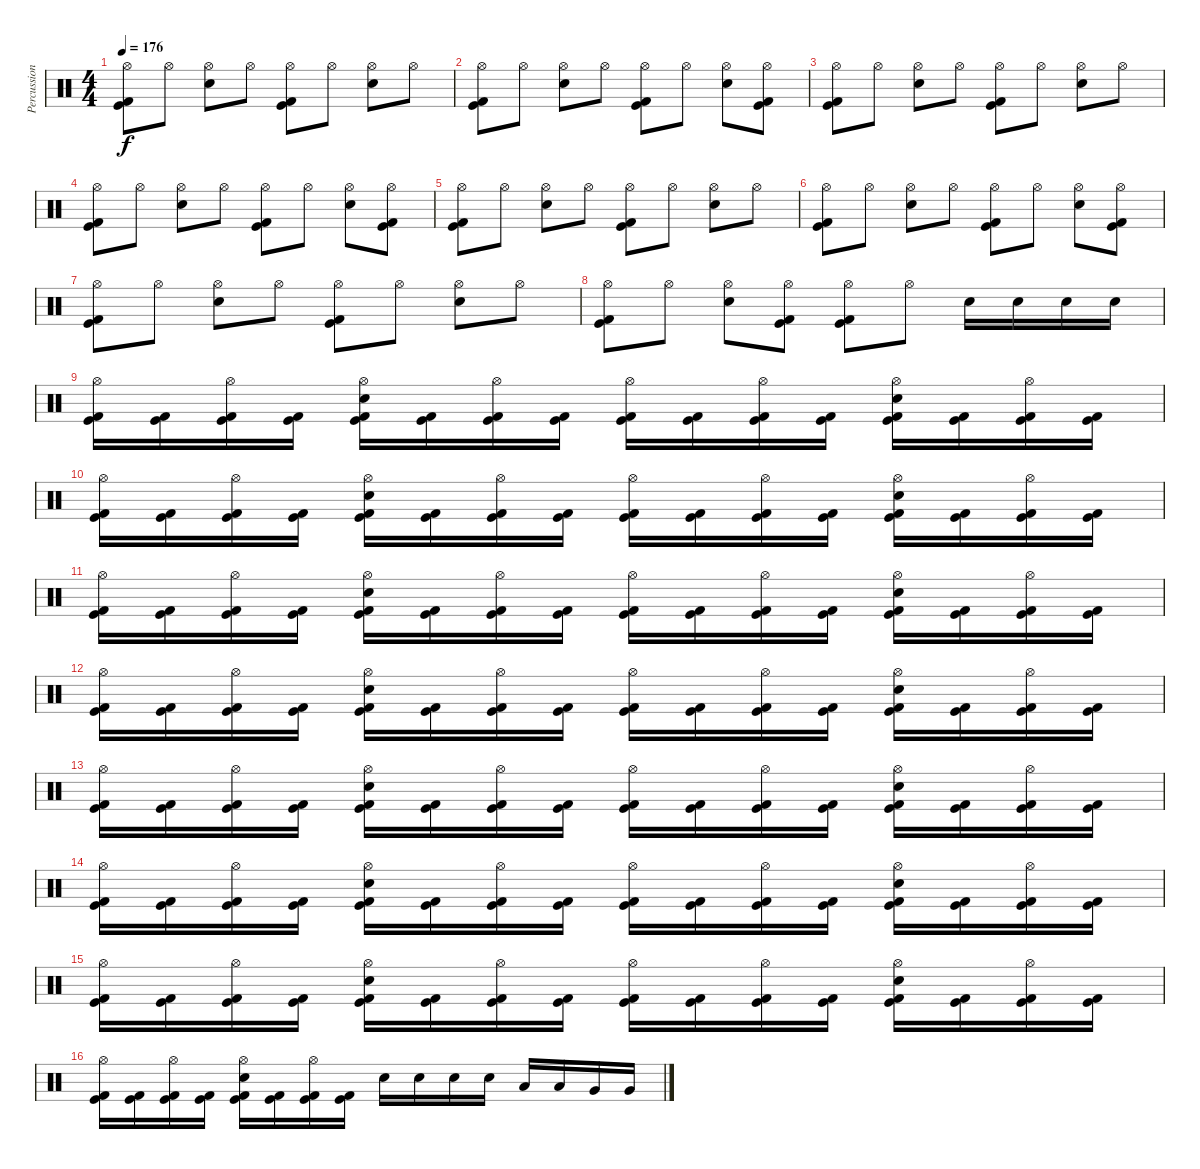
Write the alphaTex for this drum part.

\track ("Percussions" "Percussion") {instrument percussion}
\staff {score}
\articulation defaults
\ts (4 4)
\tempo 176
\clef neutral
\ks c
("Hi-Hat (open)" "Kick (hit)" "Kick (hit) 2").8{dy f} "Hi-Hat (open)".8 ("Hi-Hat (open)" "Electric Snare (hit)").8 "Hi-Hat (open)".8 ("Hi-Hat (open)" "Kick (hit)" "Kick (hit) 2").8 "Hi-Hat (open)".8 ("Hi-Hat (open)" "Electric Snare (hit)").8 "Hi-Hat (open)".8 |
("Hi-Hat (open)" "Kick (hit)" "Kick (hit) 2").8 "Hi-Hat (open)".8 ("Hi-Hat (open)" "Electric Snare (hit)").8 "Hi-Hat (open)".8 ("Hi-Hat (open)" "Kick (hit)" "Kick (hit) 2").8 "Hi-Hat (open)".8 ("Hi-Hat (open)" "Electric Snare (hit)").8 ("Hi-Hat (open)" "Kick (hit)" "Kick (hit) 2").8 |
("Hi-Hat (open)" "Kick (hit)" "Kick (hit) 2").8 "Hi-Hat (open)".8 ("Hi-Hat (open)" "Electric Snare (hit)").8 "Hi-Hat (open)".8 ("Hi-Hat (open)" "Kick (hit)" "Kick (hit) 2").8 "Hi-Hat (open)".8 ("Hi-Hat (open)" "Electric Snare (hit)").8 "Hi-Hat (open)".8 |
("Hi-Hat (open)" "Kick (hit)" "Kick (hit) 2").8 "Hi-Hat (open)".8 ("Hi-Hat (open)" "Electric Snare (hit)").8 "Hi-Hat (open)".8 ("Hi-Hat (open)" "Kick (hit)" "Kick (hit) 2").8 "Hi-Hat (open)".8 ("Hi-Hat (open)" "Electric Snare (hit)").8 ("Hi-Hat (open)" "Kick (hit)" "Kick (hit) 2").8 |
("Hi-Hat (open)" "Kick (hit)" "Kick (hit) 2").8 "Hi-Hat (open)".8 ("Hi-Hat (open)" "Electric Snare (hit)").8 "Hi-Hat (open)".8 ("Hi-Hat (open)" "Kick (hit)" "Kick (hit) 2").8 "Hi-Hat (open)".8 ("Hi-Hat (open)" "Electric Snare (hit)").8 "Hi-Hat (open)".8 |
("Hi-Hat (open)" "Kick (hit)" "Kick (hit) 2").8 "Hi-Hat (open)".8 ("Hi-Hat (open)" "Electric Snare (hit)").8 "Hi-Hat (open)".8 ("Hi-Hat (open)" "Kick (hit)" "Kick (hit) 2").8 "Hi-Hat (open)".8 ("Hi-Hat (open)" "Electric Snare (hit)").8 ("Hi-Hat (open)" "Kick (hit)" "Kick (hit) 2").8 |
("Hi-Hat (open)" "Kick (hit)" "Kick (hit) 2").8 "Hi-Hat (open)".8 ("Hi-Hat (open)" "Electric Snare (hit)").8 "Hi-Hat (open)".8 ("Hi-Hat (open)" "Kick (hit)" "Kick (hit) 2").8 "Hi-Hat (open)".8 ("Hi-Hat (open)" "Electric Snare (hit)").8 "Hi-Hat (open)".8 |
("Hi-Hat (open)" "Kick (hit)" "Kick (hit) 2").8 "Hi-Hat (open)".8 ("Hi-Hat (open)" "Electric Snare (hit)").8 ("Hi-Hat (open)" "Kick (hit)" "Kick (hit) 2").8 ("Hi-Hat (open)" "Kick (hit)" "Kick (hit) 2").8 "Hi-Hat (open)".8 "Electric Snare (hit)".16 "Electric Snare (hit)".16 "Electric Snare (hit)".16 "Electric Snare (hit)".16 |
("Hi-Hat (open)" "Kick (hit)" "Kick (hit) 2").16 ("Kick (hit)" "Kick (hit) 2").16 ("Hi-Hat (open)" "Kick (hit)" "Kick (hit) 2").16 ("Kick (hit)" "Kick (hit) 2").16 ("Hi-Hat (open)" "Electric Snare (hit)" "Kick (hit)" "Kick (hit) 2").16 ("Kick (hit)" "Kick (hit) 2").16 ("Hi-Hat (open)" "Kick (hit)" "Kick (hit) 2").16 ("Kick (hit)" "Kick (hit) 2").16 ("Hi-Hat (open)" "Kick (hit)" "Kick (hit) 2").16 ("Kick (hit)" "Kick (hit) 2").16 ("Hi-Hat (open)" "Kick (hit)" "Kick (hit) 2").16 ("Kick (hit)" "Kick (hit) 2").16 ("Hi-Hat (open)" "Electric Snare (hit)" "Kick (hit)" "Kick (hit) 2").16 ("Kick (hit)" "Kick (hit) 2").16 ("Hi-Hat (open)" "Kick (hit)" "Kick (hit) 2").16 ("Kick (hit)" "Kick (hit) 2").16 |
("Hi-Hat (open)" "Kick (hit)" "Kick (hit) 2").16 ("Kick (hit)" "Kick (hit) 2").16 ("Hi-Hat (open)" "Kick (hit)" "Kick (hit) 2").16 ("Kick (hit)" "Kick (hit) 2").16 ("Hi-Hat (open)" "Electric Snare (hit)" "Kick (hit)" "Kick (hit) 2").16 ("Kick (hit)" "Kick (hit) 2").16 ("Hi-Hat (open)" "Kick (hit)" "Kick (hit) 2").16 ("Kick (hit)" "Kick (hit) 2").16 ("Hi-Hat (open)" "Kick (hit)" "Kick (hit) 2").16 ("Kick (hit)" "Kick (hit) 2").16 ("Hi-Hat (open)" "Kick (hit)" "Kick (hit) 2").16 ("Kick (hit)" "Kick (hit) 2").16 ("Hi-Hat (open)" "Electric Snare (hit)" "Kick (hit)" "Kick (hit) 2").16 ("Kick (hit)" "Kick (hit) 2").16 ("Hi-Hat (open)" "Kick (hit)" "Kick (hit) 2").16 ("Kick (hit)" "Kick (hit) 2").16 |
("Hi-Hat (open)" "Kick (hit)" "Kick (hit) 2").16 ("Kick (hit)" "Kick (hit) 2").16 ("Hi-Hat (open)" "Kick (hit)" "Kick (hit) 2").16 ("Kick (hit)" "Kick (hit) 2").16 ("Hi-Hat (open)" "Electric Snare (hit)" "Kick (hit)" "Kick (hit) 2").16 ("Kick (hit)" "Kick (hit) 2").16 ("Hi-Hat (open)" "Kick (hit)" "Kick (hit) 2").16 ("Kick (hit)" "Kick (hit) 2").16 ("Hi-Hat (open)" "Kick (hit)" "Kick (hit) 2").16 ("Kick (hit)" "Kick (hit) 2").16 ("Hi-Hat (open)" "Kick (hit)" "Kick (hit) 2").16 ("Kick (hit)" "Kick (hit) 2").16 ("Hi-Hat (open)" "Electric Snare (hit)" "Kick (hit)" "Kick (hit) 2").16 ("Kick (hit)" "Kick (hit) 2").16 ("Hi-Hat (open)" "Kick (hit)" "Kick (hit) 2").16 ("Kick (hit)" "Kick (hit) 2").16 |
("Hi-Hat (open)" "Kick (hit)" "Kick (hit) 2").16 ("Kick (hit)" "Kick (hit) 2").16 ("Hi-Hat (open)" "Kick (hit)" "Kick (hit) 2").16 ("Kick (hit)" "Kick (hit) 2").16 ("Hi-Hat (open)" "Electric Snare (hit)" "Kick (hit)" "Kick (hit) 2").16 ("Kick (hit)" "Kick (hit) 2").16 ("Hi-Hat (open)" "Kick (hit)" "Kick (hit) 2").16 ("Kick (hit)" "Kick (hit) 2").16 ("Hi-Hat (open)" "Kick (hit)" "Kick (hit) 2").16 ("Kick (hit)" "Kick (hit) 2").16 ("Hi-Hat (open)" "Kick (hit)" "Kick (hit) 2").16 ("Kick (hit)" "Kick (hit) 2").16 ("Hi-Hat (open)" "Electric Snare (hit)" "Kick (hit)" "Kick (hit) 2").16 ("Kick (hit)" "Kick (hit) 2").16 ("Hi-Hat (open)" "Kick (hit)" "Kick (hit) 2").16 ("Kick (hit)" "Kick (hit) 2").16 |
("Hi-Hat (open)" "Kick (hit)" "Kick (hit) 2").16 ("Kick (hit)" "Kick (hit) 2").16 ("Hi-Hat (open)" "Kick (hit)" "Kick (hit) 2").16 ("Kick (hit)" "Kick (hit) 2").16 ("Hi-Hat (open)" "Electric Snare (hit)" "Kick (hit)" "Kick (hit) 2").16 ("Kick (hit)" "Kick (hit) 2").16 ("Hi-Hat (open)" "Kick (hit)" "Kick (hit) 2").16 ("Kick (hit)" "Kick (hit) 2").16 ("Hi-Hat (open)" "Kick (hit)" "Kick (hit) 2").16 ("Kick (hit)" "Kick (hit) 2").16 ("Hi-Hat (open)" "Kick (hit)" "Kick (hit) 2").16 ("Kick (hit)" "Kick (hit) 2").16 ("Hi-Hat (open)" "Electric Snare (hit)" "Kick (hit)" "Kick (hit) 2").16 ("Kick (hit)" "Kick (hit) 2").16 ("Hi-Hat (open)" "Kick (hit)" "Kick (hit) 2").16 ("Kick (hit)" "Kick (hit) 2").16 |
("Hi-Hat (open)" "Kick (hit)" "Kick (hit) 2").16 ("Kick (hit)" "Kick (hit) 2").16 ("Hi-Hat (open)" "Kick (hit)" "Kick (hit) 2").16 ("Kick (hit)" "Kick (hit) 2").16 ("Hi-Hat (open)" "Electric Snare (hit)" "Kick (hit)" "Kick (hit) 2").16 ("Kick (hit)" "Kick (hit) 2").16 ("Hi-Hat (open)" "Kick (hit)" "Kick (hit) 2").16 ("Kick (hit)" "Kick (hit) 2").16 ("Hi-Hat (open)" "Kick (hit)" "Kick (hit) 2").16 ("Kick (hit)" "Kick (hit) 2").16 ("Hi-Hat (open)" "Kick (hit)" "Kick (hit) 2").16 ("Kick (hit)" "Kick (hit) 2").16 ("Hi-Hat (open)" "Electric Snare (hit)" "Kick (hit)" "Kick (hit) 2").16 ("Kick (hit)" "Kick (hit) 2").16 ("Hi-Hat (open)" "Kick (hit)" "Kick (hit) 2").16 ("Kick (hit)" "Kick (hit) 2").16 |
("Hi-Hat (open)" "Kick (hit)" "Kick (hit) 2").16 ("Kick (hit)" "Kick (hit) 2").16 ("Hi-Hat (open)" "Kick (hit)" "Kick (hit) 2").16 ("Kick (hit)" "Kick (hit) 2").16 ("Hi-Hat (open)" "Electric Snare (hit)" "Kick (hit)" "Kick (hit) 2").16 ("Kick (hit)" "Kick (hit) 2").16 ("Hi-Hat (open)" "Kick (hit)" "Kick (hit) 2").16 ("Kick (hit)" "Kick (hit) 2").16 ("Hi-Hat (open)" "Kick (hit)" "Kick (hit) 2").16 ("Kick (hit)" "Kick (hit) 2").16 ("Hi-Hat (open)" "Kick (hit)" "Kick (hit) 2").16 ("Kick (hit)" "Kick (hit) 2").16 ("Hi-Hat (open)" "Electric Snare (hit)" "Kick (hit)" "Kick (hit) 2").16 ("Kick (hit)" "Kick (hit) 2").16 ("Hi-Hat (open)" "Kick (hit)" "Kick (hit) 2").16 ("Kick (hit)" "Kick (hit) 2").16 |
("Hi-Hat (open)" "Kick (hit)" "Kick (hit) 2").16 ("Kick (hit)" "Kick (hit) 2").16 ("Hi-Hat (open)" "Kick (hit)" "Kick (hit) 2").16 ("Kick (hit)" "Kick (hit) 2").16 ("Hi-Hat (open)" "Electric Snare (hit)" "Kick (hit)" "Kick (hit) 2").16 ("Kick (hit)" "Kick (hit) 2").16 ("Hi-Hat (open)" "Kick (hit)" "Kick (hit) 2").16 ("Kick (hit)" "Kick (hit) 2").16 "Electric Snare (hit)".16 "Electric Snare (hit)".16 "Electric Snare (hit)".16 "Electric Snare (hit)".16 "Low Tom (hit)".16 "Low Tom (hit)".16 "Very Low Tom (hit)".16 "Very Low Tom (hit)".16
